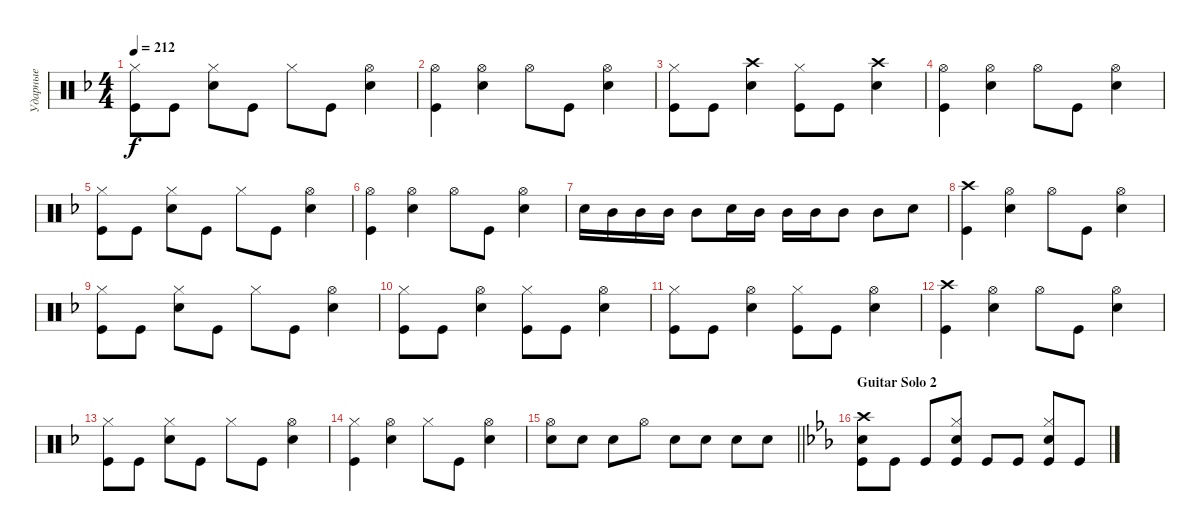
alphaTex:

\track ("Ударные" "Ударные") {instrument percussion}
\staff {score}
\articulation defaults
\ts (4 4)
\tempo 212
\clef neutral
\ks dminor
("Kick (hit)" "Hi-Hat (closed)").8{dy f} "Kick (hit)".8 ("Snare (hit) 2" "Hi-Hat (closed)").8 "Kick (hit)".8 "Hi-Hat (closed)".8 "Kick (hit)".8 ("Snare (hit) 2" "Hi-Hat (open)").4 |
("Kick (hit)" "Hi-Hat (open)").4 ("Snare (hit) 2" "Hi-Hat (open)").4 "Hi-Hat (open)".8 "Kick (hit)".8 ("Snare (hit) 2" "Hi-Hat (open)").4 |
("Kick (hit)" "Hi-Hat (closed)").8 "Kick (hit)".8 ("Snare (hit) 2" "Crash high (hit)").4 ("Kick (hit)" "Hi-Hat (closed)").8 "Kick (hit)".8 ("Snare (hit) 2" "Crash high (hit)").4 |
("Kick (hit)" "Hi-Hat (open)").4 ("Snare (hit) 2" "Hi-Hat (open)").4 "Hi-Hat (open)".8 "Kick (hit)".8 ("Hi-Hat (open)" "Snare (hit) 2").4 |
("Kick (hit)" "Hi-Hat (closed)").8 "Kick (hit)".8 ("Snare (hit) 2" "Hi-Hat (closed)").8 "Kick (hit)".8 "Hi-Hat (closed)".8 "Kick (hit)".8 ("Snare (hit) 2" "Hi-Hat (open)").4 |
("Kick (hit)" "Hi-Hat (open)").4 ("Snare (hit) 2" "Hi-Hat (open)").4 "Hi-Hat (open)".8 "Kick (hit)".8 ("Hi-Hat (open)" "Snare (hit) 2").4 |
"Snare (hit) 2".16 "Mid Tom (hit)".16 "Mid Tom (hit)".16 "Mid Tom (hit)".16 "Mid Tom (hit)".8 "Snare (hit) 2".16 "Mid Tom (hit)".16 "Mid Tom (hit)".16 "Mid Tom (hit)".16 "Mid Tom (hit)".8 "Mid Tom (hit)".8 "Snare (hit) 2".8 |
("Kick (hit)" "Crash high (hit)").4 ("Snare (hit) 2" "Hi-Hat (open)").4 "Hi-Hat (open)".8 "Kick (hit)".8 ("Hi-Hat (open)" "Snare (hit) 2").4 |
("Kick (hit)" "Hi-Hat (closed)").8 "Kick (hit)".8 ("Snare (hit) 2" "Hi-Hat (closed)").8 "Kick (hit)".8 "Hi-Hat (closed)".8 "Kick (hit)".8 ("Snare (hit) 2" "Hi-Hat (open)").4 |
("Kick (hit)" "Hi-Hat (closed)").8 "Kick (hit)".8 ("Snare (hit) 2" "Hi-Hat (open)").4 ("Hi-Hat (closed)" "Kick (hit)").8 "Kick (hit)".8 ("Snare (hit) 2" "Hi-Hat (open)").4 |
("Kick (hit)" "Hi-Hat (closed)").8 "Kick (hit)".8 ("Snare (hit) 2" "Hi-Hat (open)").4 ("Kick (hit)" "Hi-Hat (closed)").8 "Kick (hit)".8 ("Snare (hit) 2" "Hi-Hat (open)").4 |
("Kick (hit)" "Crash high (hit)").4 ("Snare (hit) 2" "Hi-Hat (open)").4 "Hi-Hat (open)".8 "Kick (hit)".8 ("Hi-Hat (open)" "Snare (hit) 2").4 |
("Kick (hit)" "Hi-Hat (closed)").8 "Kick (hit)".8 ("Snare (hit) 2" "Hi-Hat (closed)").8 "Kick (hit)".8 "Hi-Hat (closed)".8 "Kick (hit)".8 ("Snare (hit) 2" "Hi-Hat (open)").4 |
("Kick (hit)" "Hi-Hat (closed)").4 ("Snare (hit) 2" "Hi-Hat (open)").4 "Hi-Hat (closed)".8 "Kick (hit)".8 ("Hi-Hat (open)" "Snare (hit) 2").4 |
\barLineRight lightlight
("Snare (hit) 2" "Hi-Hat (open)").8 "Snare (hit) 2".8 "Snare (hit) 2".8 "Hi-Hat (open)".8 "Snare (hit) 2".8 "Snare (hit) 2".8 "Snare (hit) 2".8 "Snare (hit) 2".8 |
\section ("" "Guitar Solo 2")
\ks cminor
("Snare (hit) 2" "Crash high (hit)" "Kick (hit)").8 "Kick (hit)".8 "Kick (hit)".8 ("Snare (hit) 2" "Hi-Hat (closed)" "Kick (hit)").8 "Kick (hit)".8 "Kick (hit)".8 ("Snare (hit) 2" "Hi-Hat (closed)" "Kick (hit)").8 "Kick (hit)".8
